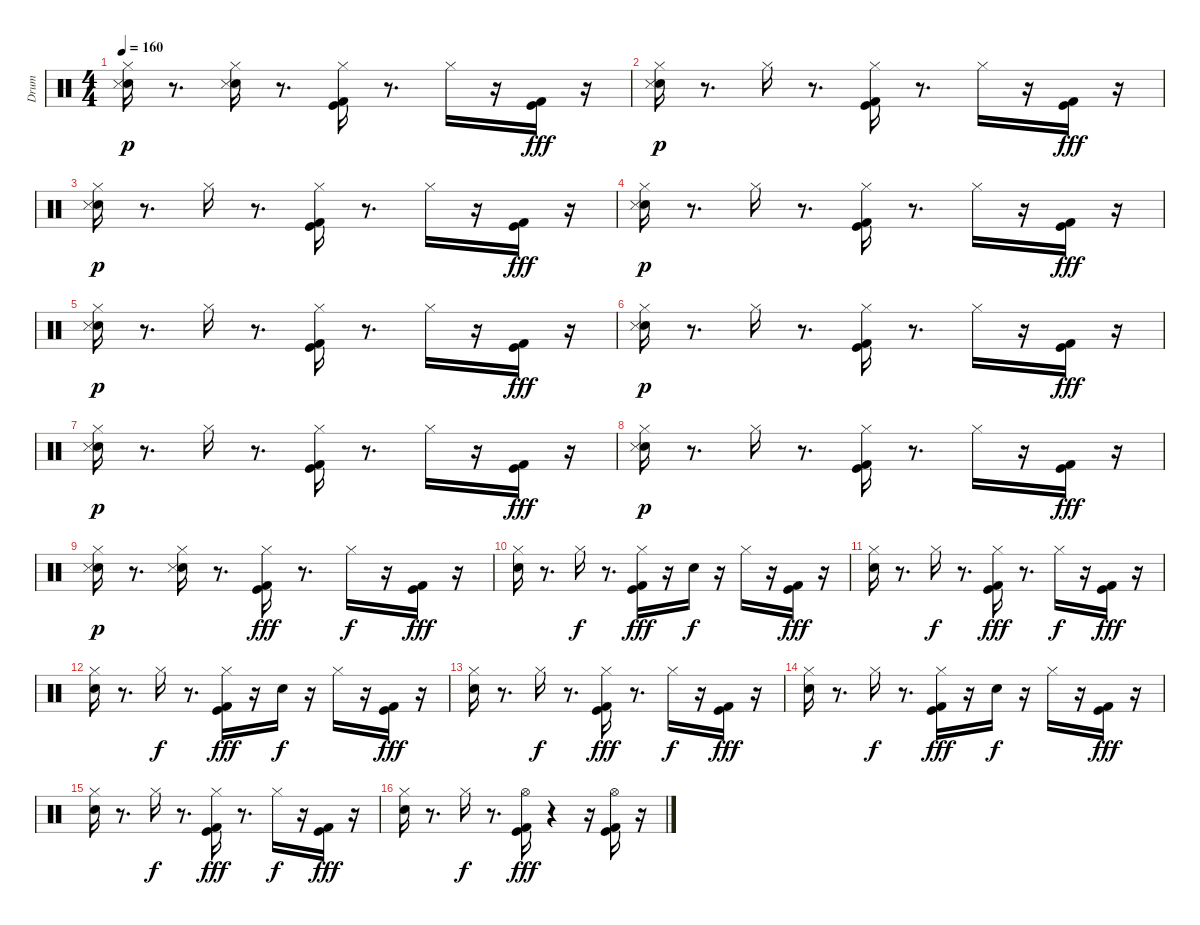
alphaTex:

\track ("Drum" "Drum") {instrument percussion}
\staff {score}
\articulation defaults
\ts (4 4)
\tempo 160
\clef neutral
\ks c
("Hand Clap (hit)" "Snare (side stick) 3" "Hi-Hat (closed)").16{dy p} r.8{d} ("Hand Clap (hit)" "Snare (side stick) 3" "Hi-Hat (closed)").16 r.8{d} ("Kick (hit)" "Kick (hit) 2" "Hi-Hat (closed)").16 r.8{d} "Hi-Hat (closed)".16 r.16 ("Kick (hit)" "Kick (hit) 2").16{dy fff} r.16 |
("Hand Clap (hit)" "Snare (side stick) 3" "Hi-Hat (closed)").16{dy p} r.8{d} "Hi-Hat (closed)".16 r.8{d} ("Kick (hit)" "Kick (hit) 2" "Hi-Hat (closed)").16 r.8{d} "Hi-Hat (closed)".16 r.16 ("Kick (hit)" "Kick (hit) 2").16{dy fff} r.16 |
("Hand Clap (hit)" "Snare (side stick) 3" "Hi-Hat (closed)").16{dy p} r.8{d} "Hi-Hat (closed)".16 r.8{d} ("Kick (hit)" "Kick (hit) 2" "Hi-Hat (closed)").16 r.8{d} "Hi-Hat (closed)".16 r.16 ("Kick (hit)" "Kick (hit) 2").16{dy fff} r.16 |
("Hand Clap (hit)" "Snare (side stick) 3" "Hi-Hat (closed)").16{dy p} r.8{d} "Hi-Hat (closed)".16 r.8{d} ("Kick (hit)" "Kick (hit) 2" "Hi-Hat (closed)").16 r.8{d} "Hi-Hat (closed)".16 r.16 ("Kick (hit)" "Kick (hit) 2").16{dy fff} r.16 |
("Hand Clap (hit)" "Snare (side stick) 3" "Hi-Hat (closed)").16{dy p} r.8{d} "Hi-Hat (closed)".16 r.8{d} ("Kick (hit)" "Kick (hit) 2" "Hi-Hat (closed)").16 r.8{d} "Hi-Hat (closed)".16 r.16 ("Kick (hit)" "Kick (hit) 2").16{dy fff} r.16 |
("Hand Clap (hit)" "Snare (side stick) 3" "Hi-Hat (closed)").16{dy p} r.8{d} "Hi-Hat (closed)".16 r.8{d} ("Kick (hit)" "Kick (hit) 2" "Hi-Hat (closed)").16 r.8{d} "Hi-Hat (closed)".16 r.16 ("Kick (hit)" "Kick (hit) 2").16{dy fff} r.16 |
("Hand Clap (hit)" "Snare (side stick) 3" "Hi-Hat (closed)").16{dy p} r.8{d} "Hi-Hat (closed)".16 r.8{d} ("Kick (hit)" "Kick (hit) 2" "Hi-Hat (closed)").16 r.8{d} "Hi-Hat (closed)".16 r.16 ("Kick (hit)" "Kick (hit) 2").16{dy fff} r.16 |
("Hand Clap (hit)" "Snare (side stick) 3" "Hi-Hat (closed)").16{dy p} r.8{d} "Hi-Hat (closed)".16 r.8{d} ("Kick (hit)" "Kick (hit) 2" "Hi-Hat (closed)").16 r.8{d} "Hi-Hat (closed)".16 r.16 ("Kick (hit)" "Kick (hit) 2").16{dy fff} r.16 |
("Hand Clap (hit)" "Snare (side stick) 3" "Hi-Hat (closed)").16{dy p} r.8{d} ("Hand Clap (hit)" "Snare (side stick) 3" "Hi-Hat (closed)").16 r.8{d} ("Kick (hit)" "Kick (hit) 2" "Hi-Hat (closed)").16{dy fff} r.8{d} "Hi-Hat (closed)".16{dy f} r.16 ("Kick (hit)" "Kick (hit) 2").16{dy fff} r.16 |
("Hi-Hat (closed)" "Electric Snare (hit)").16 r.8{d} "Hi-Hat (closed)".16{dy f} r.8{d} ("Kick (hit)" "Kick (hit) 2" "Hi-Hat (closed)").16{dy fff} r.16 "Electric Snare (hit)".16{dy f} r.16 "Hi-Hat (closed)".16 r.16 ("Kick (hit)" "Kick (hit) 2").16{dy fff} r.16 |
("Hi-Hat (closed)" "Electric Snare (hit)").16 r.8{d} "Hi-Hat (closed)".16{dy f} r.8{d} ("Kick (hit)" "Kick (hit) 2" "Hi-Hat (closed)").16{dy fff} r.8{d} "Hi-Hat (closed)".16{dy f} r.16 ("Kick (hit)" "Kick (hit) 2").16{dy fff} r.16 |
("Hi-Hat (closed)" "Electric Snare (hit)").16 r.8{d} "Hi-Hat (closed)".16{dy f} r.8{d} ("Kick (hit)" "Kick (hit) 2" "Hi-Hat (closed)").16{dy fff} r.16 "Electric Snare (hit)".16{dy f} r.16 "Hi-Hat (closed)".16 r.16 ("Kick (hit)" "Kick (hit) 2").16{dy fff} r.16 |
("Hi-Hat (closed)" "Electric Snare (hit)").16 r.8{d} "Hi-Hat (closed)".16{dy f} r.8{d} ("Kick (hit)" "Kick (hit) 2" "Hi-Hat (closed)").16{dy fff} r.8{d} "Hi-Hat (closed)".16{dy f} r.16 ("Kick (hit)" "Kick (hit) 2").16{dy fff} r.16 |
("Hi-Hat (closed)" "Electric Snare (hit)").16 r.8{d} "Hi-Hat (closed)".16{dy f} r.8{d} ("Kick (hit)" "Kick (hit) 2" "Hi-Hat (closed)").16{dy fff} r.16 "Electric Snare (hit)".16{dy f} r.16 "Hi-Hat (closed)".16 r.16 ("Kick (hit)" "Kick (hit) 2").16{dy fff} r.16 |
("Hi-Hat (closed)" "Electric Snare (hit)").16 r.8{d} "Hi-Hat (closed)".16{dy f} r.8{d} ("Kick (hit)" "Kick (hit) 2" "Hi-Hat (closed)").16{dy fff} r.8{d} "Hi-Hat (closed)".16{dy f} r.16 ("Kick (hit)" "Kick (hit) 2").16{dy fff} r.16 |
("Hi-Hat (closed)" "Electric Snare (hit)").16 r.8{d} "Hi-Hat (closed)".16{dy f} r.8{d} ("Kick (hit)" "Kick (hit) 2" "Hi-Hat (open)").16{dy fff} r.4 r.16 ("Kick (hit)" "Kick (hit) 2" "Hi-Hat (open)").16 r.16
